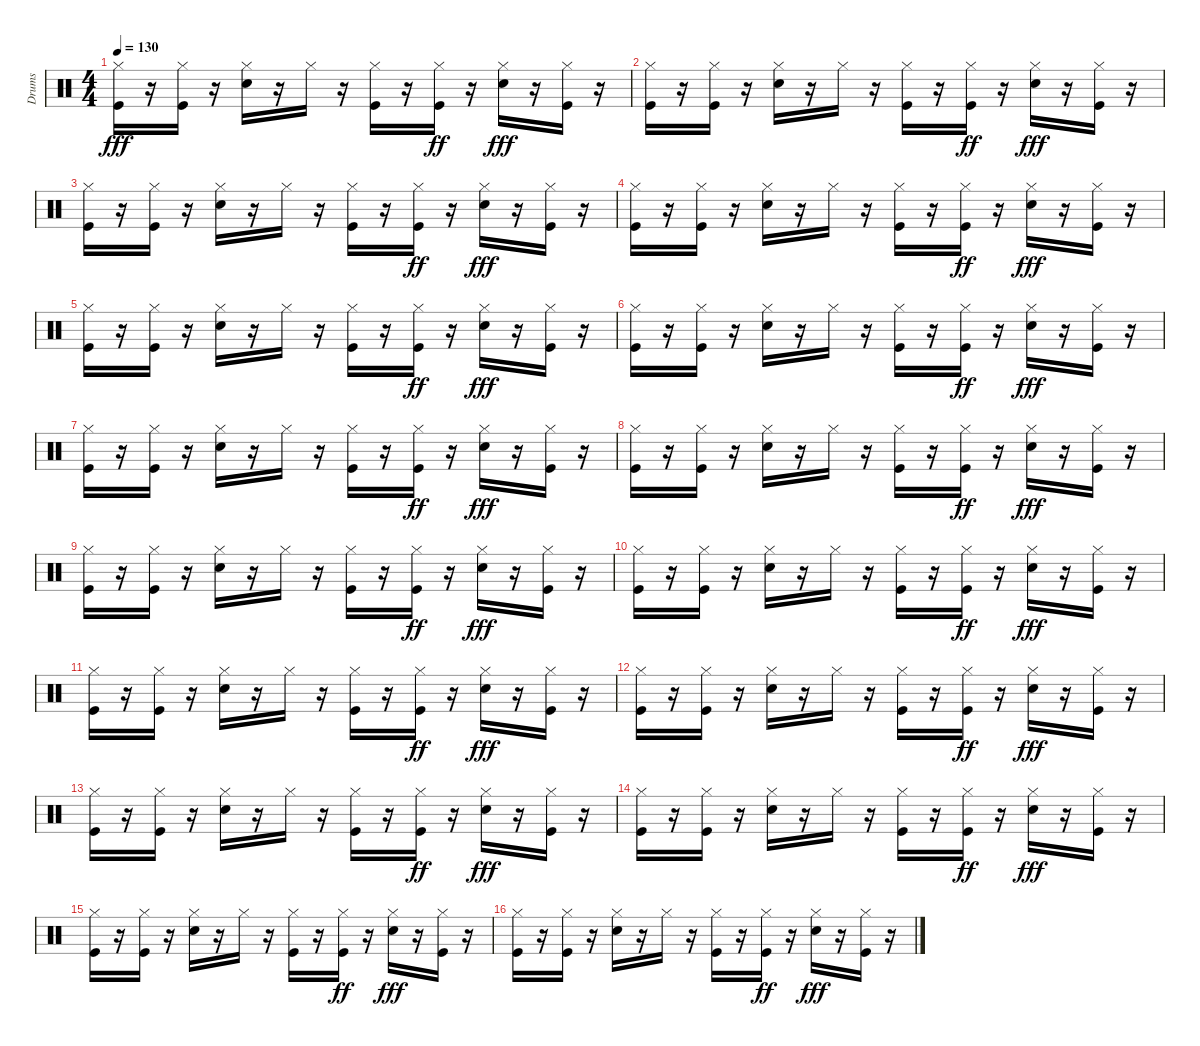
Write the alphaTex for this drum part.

\track ("Drums" "Drums") {instrument percussion}
\staff {score}
\articulation defaults
\ts (4 4)
\tempo 130
\clef neutral
\ks c
("Hi-Hat (closed)" "Kick (hit)").16{dy fff} r.16 ("Hi-Hat (closed)" "Kick (hit)").16 r.16 ("Hi-Hat (closed)" "Electric Snare (hit)").16 r.16 "Hi-Hat (closed)".16 r.16 ("Hi-Hat (closed)" "Kick (hit)").16 r.16 ("Hi-Hat (closed)" "Kick (hit)").16{dy ff} r.16 ("Hi-Hat (closed)" "Electric Snare (hit)").16{dy fff} r.16 ("Hi-Hat (closed)" "Kick (hit)").16 r.16 |
("Hi-Hat (closed)" "Kick (hit)").16 r.16 ("Hi-Hat (closed)" "Kick (hit)").16 r.16 ("Hi-Hat (closed)" "Electric Snare (hit)").16 r.16 "Hi-Hat (closed)".16 r.16 ("Hi-Hat (closed)" "Kick (hit)").16 r.16 ("Hi-Hat (closed)" "Kick (hit)").16{dy ff} r.16 ("Hi-Hat (closed)" "Electric Snare (hit)").16{dy fff} r.16 ("Hi-Hat (closed)" "Kick (hit)").16 r.16 |
("Hi-Hat (closed)" "Kick (hit)").16 r.16 ("Hi-Hat (closed)" "Kick (hit)").16 r.16 ("Hi-Hat (closed)" "Electric Snare (hit)").16 r.16 "Hi-Hat (closed)".16 r.16 ("Hi-Hat (closed)" "Kick (hit)").16 r.16 ("Hi-Hat (closed)" "Kick (hit)").16{dy ff} r.16 ("Hi-Hat (closed)" "Electric Snare (hit)").16{dy fff} r.16 ("Hi-Hat (closed)" "Kick (hit)").16 r.16 |
("Hi-Hat (closed)" "Kick (hit)").16 r.16 ("Hi-Hat (closed)" "Kick (hit)").16 r.16 ("Hi-Hat (closed)" "Electric Snare (hit)").16 r.16 "Hi-Hat (closed)".16 r.16 ("Hi-Hat (closed)" "Kick (hit)").16 r.16 ("Hi-Hat (closed)" "Kick (hit)").16{dy ff} r.16 ("Hi-Hat (closed)" "Electric Snare (hit)").16{dy fff} r.16 ("Hi-Hat (closed)" "Kick (hit)").16 r.16 |
("Hi-Hat (closed)" "Kick (hit)").16 r.16 ("Hi-Hat (closed)" "Kick (hit)").16 r.16 ("Hi-Hat (closed)" "Electric Snare (hit)").16 r.16 "Hi-Hat (closed)".16 r.16 ("Hi-Hat (closed)" "Kick (hit)").16 r.16 ("Hi-Hat (closed)" "Kick (hit)").16{dy ff} r.16 ("Hi-Hat (closed)" "Electric Snare (hit)").16{dy fff} r.16 ("Hi-Hat (closed)" "Kick (hit)").16 r.16 |
("Hi-Hat (closed)" "Kick (hit)").16 r.16 ("Hi-Hat (closed)" "Kick (hit)").16 r.16 ("Hi-Hat (closed)" "Electric Snare (hit)").16 r.16 "Hi-Hat (closed)".16 r.16 ("Hi-Hat (closed)" "Kick (hit)").16 r.16 ("Hi-Hat (closed)" "Kick (hit)").16{dy ff} r.16 ("Hi-Hat (closed)" "Electric Snare (hit)").16{dy fff} r.16 ("Hi-Hat (closed)" "Kick (hit)").16 r.16 |
("Hi-Hat (closed)" "Kick (hit)").16 r.16 ("Hi-Hat (closed)" "Kick (hit)").16 r.16 ("Hi-Hat (closed)" "Electric Snare (hit)").16 r.16 "Hi-Hat (closed)".16 r.16 ("Hi-Hat (closed)" "Kick (hit)").16 r.16 ("Hi-Hat (closed)" "Kick (hit)").16{dy ff} r.16 ("Hi-Hat (closed)" "Electric Snare (hit)").16{dy fff} r.16 ("Hi-Hat (closed)" "Kick (hit)").16 r.16 |
("Hi-Hat (closed)" "Kick (hit)").16 r.16 ("Hi-Hat (closed)" "Kick (hit)").16 r.16 ("Hi-Hat (closed)" "Electric Snare (hit)").16 r.16 "Hi-Hat (closed)".16 r.16 ("Hi-Hat (closed)" "Kick (hit)").16 r.16 ("Hi-Hat (closed)" "Kick (hit)").16{dy ff} r.16 ("Hi-Hat (closed)" "Electric Snare (hit)").16{dy fff} r.16 ("Hi-Hat (closed)" "Kick (hit)").16 r.16 |
("Hi-Hat (closed)" "Kick (hit)").16 r.16 ("Hi-Hat (closed)" "Kick (hit)").16 r.16 ("Hi-Hat (closed)" "Electric Snare (hit)").16 r.16 "Hi-Hat (closed)".16 r.16 ("Hi-Hat (closed)" "Kick (hit)").16 r.16 ("Hi-Hat (closed)" "Kick (hit)").16{dy ff} r.16 ("Hi-Hat (closed)" "Electric Snare (hit)").16{dy fff} r.16 ("Hi-Hat (closed)" "Kick (hit)").16 r.16 |
("Hi-Hat (closed)" "Kick (hit)").16 r.16 ("Hi-Hat (closed)" "Kick (hit)").16 r.16 ("Hi-Hat (closed)" "Electric Snare (hit)").16 r.16 "Hi-Hat (closed)".16 r.16 ("Hi-Hat (closed)" "Kick (hit)").16 r.16 ("Hi-Hat (closed)" "Kick (hit)").16{dy ff} r.16 ("Hi-Hat (closed)" "Electric Snare (hit)").16{dy fff} r.16 ("Hi-Hat (closed)" "Kick (hit)").16 r.16 |
("Hi-Hat (closed)" "Kick (hit)").16 r.16 ("Hi-Hat (closed)" "Kick (hit)").16 r.16 ("Hi-Hat (closed)" "Electric Snare (hit)").16 r.16 "Hi-Hat (closed)".16 r.16 ("Hi-Hat (closed)" "Kick (hit)").16 r.16 ("Hi-Hat (closed)" "Kick (hit)").16{dy ff} r.16 ("Hi-Hat (closed)" "Electric Snare (hit)").16{dy fff} r.16 ("Hi-Hat (closed)" "Kick (hit)").16 r.16 |
("Hi-Hat (closed)" "Kick (hit)").16 r.16 ("Hi-Hat (closed)" "Kick (hit)").16 r.16 ("Hi-Hat (closed)" "Electric Snare (hit)").16 r.16 "Hi-Hat (closed)".16 r.16 ("Hi-Hat (closed)" "Kick (hit)").16 r.16 ("Hi-Hat (closed)" "Kick (hit)").16{dy ff} r.16 ("Hi-Hat (closed)" "Electric Snare (hit)").16{dy fff} r.16 ("Hi-Hat (closed)" "Kick (hit)").16 r.16 |
("Hi-Hat (closed)" "Kick (hit)").16 r.16 ("Hi-Hat (closed)" "Kick (hit)").16 r.16 ("Hi-Hat (closed)" "Electric Snare (hit)").16 r.16 "Hi-Hat (closed)".16 r.16 ("Hi-Hat (closed)" "Kick (hit)").16 r.16 ("Hi-Hat (closed)" "Kick (hit)").16{dy ff} r.16 ("Hi-Hat (closed)" "Electric Snare (hit)").16{dy fff} r.16 ("Hi-Hat (closed)" "Kick (hit)").16 r.16 |
("Hi-Hat (closed)" "Kick (hit)").16 r.16 ("Hi-Hat (closed)" "Kick (hit)").16 r.16 ("Hi-Hat (closed)" "Electric Snare (hit)").16 r.16 "Hi-Hat (closed)".16 r.16 ("Hi-Hat (closed)" "Kick (hit)").16 r.16 ("Hi-Hat (closed)" "Kick (hit)").16{dy ff} r.16 ("Hi-Hat (closed)" "Electric Snare (hit)").16{dy fff} r.16 ("Hi-Hat (closed)" "Kick (hit)").16 r.16 |
("Hi-Hat (closed)" "Kick (hit)").16 r.16 ("Hi-Hat (closed)" "Kick (hit)").16 r.16 ("Hi-Hat (closed)" "Electric Snare (hit)").16 r.16 "Hi-Hat (closed)".16 r.16 ("Hi-Hat (closed)" "Kick (hit)").16 r.16 ("Hi-Hat (closed)" "Kick (hit)").16{dy ff} r.16 ("Hi-Hat (closed)" "Electric Snare (hit)").16{dy fff} r.16 ("Hi-Hat (closed)" "Kick (hit)").16 r.16 |
("Hi-Hat (closed)" "Kick (hit)").16 r.16 ("Hi-Hat (closed)" "Kick (hit)").16 r.16 ("Hi-Hat (closed)" "Electric Snare (hit)").16 r.16 "Hi-Hat (closed)".16 r.16 ("Hi-Hat (closed)" "Kick (hit)").16 r.16 ("Hi-Hat (closed)" "Kick (hit)").16{dy ff} r.16 ("Hi-Hat (closed)" "Electric Snare (hit)").16{dy fff} r.16 ("Hi-Hat (closed)" "Kick (hit)").16 r.16
